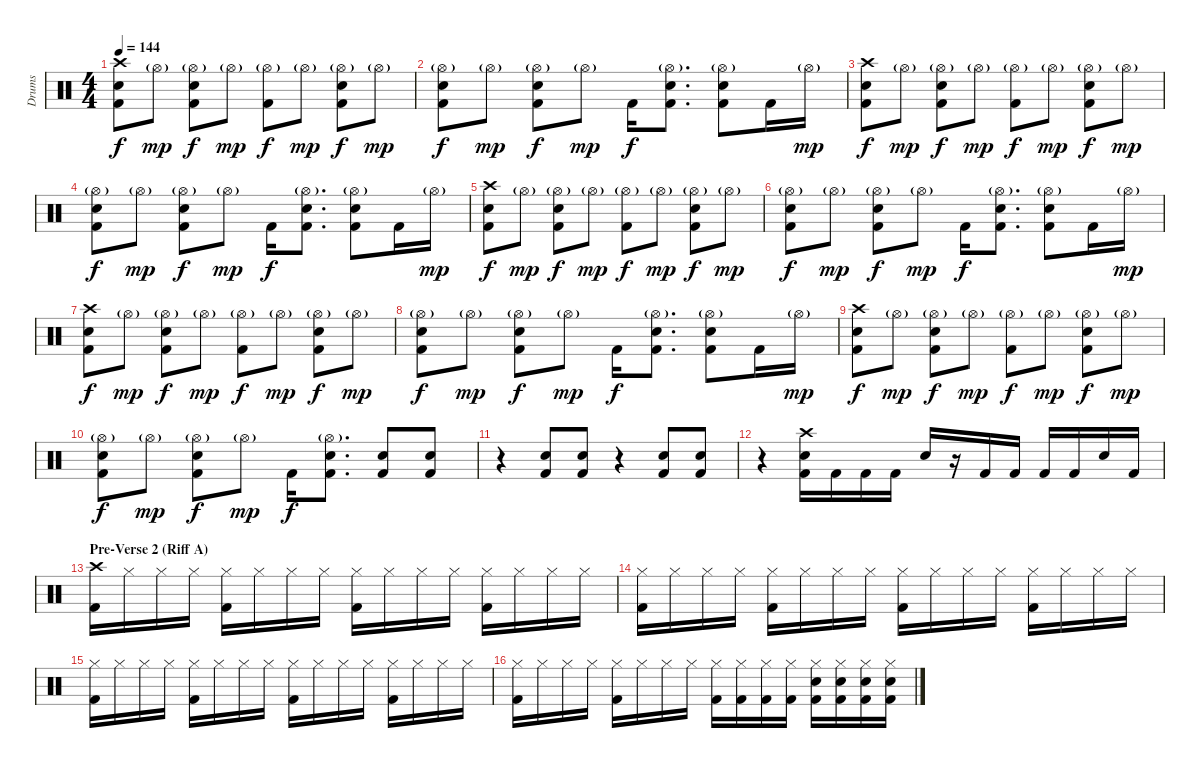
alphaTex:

\track ("Drums" "Drums") {instrument percussion}
\staff {score}
\articulation defaults
\ts (4 4)
\tempo 144
\clef neutral
\ks c
("Crash high (hit)" "Snare (hit) 2" "Kick (hit) 2").8{dy f} "Hi-Hat (open)"{g}.8{dy mp} ("Hi-Hat (open)"{g} "Snare (hit) 2" "Kick (hit) 2").8{dy f} "Hi-Hat (open)"{g}.8{dy mp} ("Hi-Hat (open)"{g} "Kick (hit) 2").8{dy f} "Hi-Hat (open)"{g}.8{dy mp} ("Hi-Hat (open)"{g} "Snare (hit) 2" "Kick (hit) 2").8{dy f} "Hi-Hat (open)"{g}.8{dy mp} |
("Hi-Hat (open)"{g} "Snare (hit) 2" "Kick (hit) 2").8{dy f} "Hi-Hat (open)"{g}.8{dy mp} ("Hi-Hat (open)"{g} "Snare (hit) 2" "Kick (hit) 2").8{dy f} "Hi-Hat (open)"{g}.8{dy mp} "Kick (hit) 2".16{dy f} ("Hi-Hat (open)"{g} "Snare (hit) 2" "Kick (hit) 2").8{d} ("Hi-Hat (open)"{g} "Snare (hit) 2" "Kick (hit) 2").8 "Kick (hit) 2".16 "Hi-Hat (open)"{g}.16{dy mp} |
("Crash high (hit)" "Snare (hit) 2" "Kick (hit) 2").8{dy f} "Hi-Hat (open)"{g}.8{dy mp} ("Hi-Hat (open)"{g} "Snare (hit) 2" "Kick (hit) 2").8{dy f} "Hi-Hat (open)"{g}.8{dy mp} ("Hi-Hat (open)"{g} "Kick (hit) 2").8{dy f} "Hi-Hat (open)"{g}.8{dy mp} ("Hi-Hat (open)"{g} "Snare (hit) 2" "Kick (hit) 2").8{dy f} "Hi-Hat (open)"{g}.8{dy mp} |
("Hi-Hat (open)"{g} "Snare (hit) 2" "Kick (hit) 2").8{dy f} "Hi-Hat (open)"{g}.8{dy mp} ("Hi-Hat (open)"{g} "Snare (hit) 2" "Kick (hit) 2").8{dy f} "Hi-Hat (open)"{g}.8{dy mp} "Kick (hit) 2".16{dy f} ("Hi-Hat (open)"{g} "Snare (hit) 2" "Kick (hit) 2").8{d} ("Hi-Hat (open)"{g} "Snare (hit) 2" "Kick (hit) 2").8 "Kick (hit) 2".16 "Hi-Hat (open)"{g}.16{dy mp} |
("Crash high (hit)" "Snare (hit) 2" "Kick (hit) 2").8{dy f} "Hi-Hat (open)"{g}.8{dy mp} ("Hi-Hat (open)"{g} "Snare (hit) 2" "Kick (hit) 2").8{dy f} "Hi-Hat (open)"{g}.8{dy mp} ("Hi-Hat (open)"{g} "Kick (hit) 2").8{dy f} "Hi-Hat (open)"{g}.8{dy mp} ("Hi-Hat (open)"{g} "Snare (hit) 2" "Kick (hit) 2").8{dy f} "Hi-Hat (open)"{g}.8{dy mp} |
("Hi-Hat (open)"{g} "Snare (hit) 2" "Kick (hit) 2").8{dy f} "Hi-Hat (open)"{g}.8{dy mp} ("Hi-Hat (open)"{g} "Snare (hit) 2" "Kick (hit) 2").8{dy f} "Hi-Hat (open)"{g}.8{dy mp} "Kick (hit) 2".16{dy f} ("Hi-Hat (open)"{g} "Snare (hit) 2" "Kick (hit) 2").8{d} ("Hi-Hat (open)"{g} "Snare (hit) 2" "Kick (hit) 2").8 "Kick (hit) 2".16 "Hi-Hat (open)"{g}.16{dy mp} |
("Crash high (hit)" "Snare (hit) 2" "Kick (hit) 2").8{dy f} "Hi-Hat (open)"{g}.8{dy mp} ("Hi-Hat (open)"{g} "Snare (hit) 2" "Kick (hit) 2").8{dy f} "Hi-Hat (open)"{g}.8{dy mp} ("Hi-Hat (open)"{g} "Kick (hit) 2").8{dy f} "Hi-Hat (open)"{g}.8{dy mp} ("Hi-Hat (open)"{g} "Snare (hit) 2" "Kick (hit) 2").8{dy f} "Hi-Hat (open)"{g}.8{dy mp} |
("Hi-Hat (open)"{g} "Snare (hit) 2" "Kick (hit) 2").8{dy f} "Hi-Hat (open)"{g}.8{dy mp} ("Hi-Hat (open)"{g} "Snare (hit) 2" "Kick (hit) 2").8{dy f} "Hi-Hat (open)"{g}.8{dy mp} "Kick (hit) 2".16{dy f} ("Hi-Hat (open)"{g} "Snare (hit) 2" "Kick (hit) 2").8{d} ("Hi-Hat (open)"{g} "Snare (hit) 2" "Kick (hit) 2").8 "Kick (hit) 2".16 "Hi-Hat (open)"{g}.16{dy mp} |
("Crash high (hit)" "Snare (hit) 2" "Kick (hit) 2").8{dy f} "Hi-Hat (open)"{g}.8{dy mp} ("Hi-Hat (open)"{g} "Snare (hit) 2" "Kick (hit) 2").8{dy f} "Hi-Hat (open)"{g}.8{dy mp} ("Hi-Hat (open)"{g} "Kick (hit) 2").8{dy f} "Hi-Hat (open)"{g}.8{dy mp} ("Hi-Hat (open)"{g} "Snare (hit) 2" "Kick (hit) 2").8{dy f} "Hi-Hat (open)"{g}.8{dy mp} |
("Hi-Hat (open)"{g} "Snare (hit) 2" "Kick (hit) 2").8{dy f} "Hi-Hat (open)"{g}.8{dy mp} ("Hi-Hat (open)"{g} "Snare (hit) 2" "Kick (hit) 2").8{dy f} "Hi-Hat (open)"{g}.8{dy mp} "Kick (hit) 2".16{dy f} ("Hi-Hat (open)"{g} "Snare (hit) 2" "Kick (hit) 2").8{d} ("Snare (hit) 2" "Kick (hit) 2").8 ("Snare (hit) 2" "Kick (hit) 2").8 |
r.4 ("Snare (hit) 2" "Kick (hit) 2").8 ("Snare (hit) 2" "Kick (hit) 2").8 r.4 ("Snare (hit) 2" "Kick (hit) 2").8 ("Snare (hit) 2" "Kick (hit) 2").8 |
r.4 ("Crash high (hit)" "Snare (hit) 2" "Kick (hit) 2").16 "Kick (hit) 2".16 "Kick (hit) 2".16 "Kick (hit) 2".16 "Snare (hit) 2".16 r.16 "Kick (hit) 2".16 "Kick (hit) 2".16 "Kick (hit) 2".16 "Kick (hit) 2".16 "Snare (hit) 2".16 "Kick (hit) 2".16 |
\section ("" "Pre-Verse 2 (Riff A)")
("Crash high (hit)" "Kick (hit) 2").16 "Hi-Hat (closed)".16 "Hi-Hat (closed)".16 "Hi-Hat (closed)".16 ("Hi-Hat (closed)" "Kick (hit) 2").16 "Hi-Hat (closed)".16 "Hi-Hat (closed)".16 "Hi-Hat (closed)".16 ("Hi-Hat (closed)" "Kick (hit) 2").16 "Hi-Hat (closed)".16 "Hi-Hat (closed)".16 "Hi-Hat (closed)".16 ("Hi-Hat (closed)" "Kick (hit) 2").16 "Hi-Hat (closed)".16 "Hi-Hat (closed)".16 "Hi-Hat (closed)".16 |
("Hi-Hat (closed)" "Kick (hit) 2").16 "Hi-Hat (closed)".16 "Hi-Hat (closed)".16 "Hi-Hat (closed)".16 ("Hi-Hat (closed)" "Kick (hit) 2").16 "Hi-Hat (closed)".16 "Hi-Hat (closed)".16 "Hi-Hat (closed)".16 ("Hi-Hat (closed)" "Kick (hit) 2").16 "Hi-Hat (closed)".16 "Hi-Hat (closed)".16 "Hi-Hat (closed)".16 ("Hi-Hat (closed)" "Kick (hit) 2").16 "Hi-Hat (closed)".16 "Hi-Hat (closed)".16 "Hi-Hat (closed)".16 |
("Hi-Hat (closed)" "Kick (hit) 2").16 "Hi-Hat (closed)".16 "Hi-Hat (closed)".16 "Hi-Hat (closed)".16 ("Hi-Hat (closed)" "Kick (hit) 2").16 "Hi-Hat (closed)".16 "Hi-Hat (closed)".16 "Hi-Hat (closed)".16 ("Hi-Hat (closed)" "Kick (hit) 2").16 "Hi-Hat (closed)".16 "Hi-Hat (closed)".16 "Hi-Hat (closed)".16 ("Hi-Hat (closed)" "Kick (hit) 2").16 "Hi-Hat (closed)".16 "Hi-Hat (closed)".16 "Hi-Hat (closed)".16 |
("Hi-Hat (closed)" "Kick (hit) 2").16 "Hi-Hat (closed)".16 "Hi-Hat (closed)".16 "Hi-Hat (closed)".16 ("Hi-Hat (closed)" "Kick (hit) 2").16 "Hi-Hat (closed)".16 "Hi-Hat (closed)".16 "Hi-Hat (closed)".16 ("Hi-Hat (closed)" "Kick (hit) 2").16 ("Hi-Hat (closed)" "Kick (hit) 2").16 ("Hi-Hat (closed)" "Kick (hit) 2").16 ("Hi-Hat (closed)" "Kick (hit) 2").16 ("Hi-Hat (closed)" "Snare (hit) 2" "Kick (hit) 2").16 ("Hi-Hat (closed)" "Snare (hit) 2" "Kick (hit) 2").16 ("Hi-Hat (closed)" "Snare (hit) 2" "Kick (hit) 2").16 ("Hi-Hat (closed)" "Snare (hit) 2" "Kick (hit) 2").16
